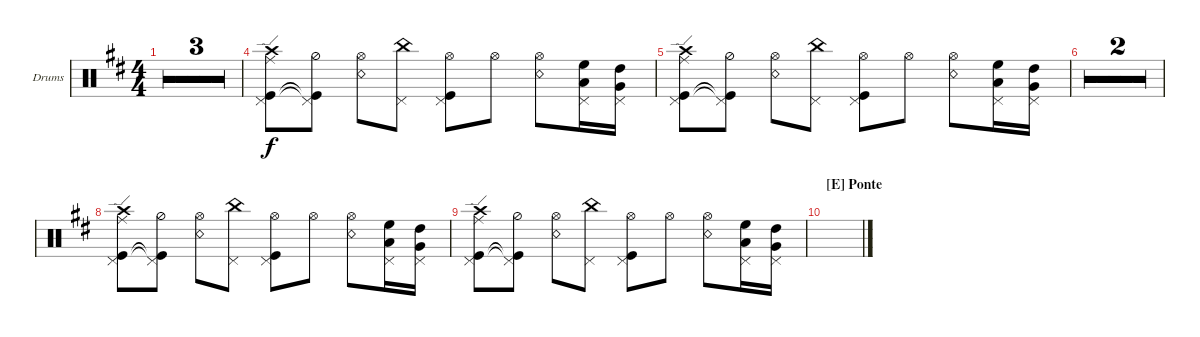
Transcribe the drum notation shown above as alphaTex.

\defaultSystemsLayout 4
\bracketExtendMode groupsimilarinstruments
\firstSystemTrackNameOrientation horizontal
\otherSystemsTrackNameOrientation horizontal
\track ("Drum-hall" "Drums") {multiBarRest instrument percussion}
\staff {score}
\articulation defaults
\ts (4 4)
\tempo 72
\clef neutral
\ks d
|
|
|
("Kick (hit)" "Pedal Hi-Hat (hit)" "Crash high (hit)" "Ride (edge)").8 ("Kick (hit)"{t} "Pedal Hi-Hat (hit)"{t} "Hi-Hat (half)").8 ("Snare (rim shot)" "Hi-Hat (open)").8 ("Pedal Hi-Hat (hit)" "China (hit)").8 ("Kick (hit)" "Pedal Hi-Hat (hit)" "Hi-Hat (open)").8 "Hi-Hat (open)".8 ("Snare (rim shot)" "Hi-Hat (open)").8 ("High Floor Tom (hit)" "Low Tom (hit)" "Pedal Hi-Hat (hit)").16 ("High Tom (hit)" "Very Low Tom (hit)" "Pedal Hi-Hat (hit)").16 |
("Kick (hit)" "Pedal Hi-Hat (hit)" "Crash high (hit)" "Ride (edge)").8 ("Kick (hit)"{t} "Pedal Hi-Hat (hit)"{t} "Hi-Hat (half)").8 ("Snare (rim shot)" "Hi-Hat (open)").8 ("Pedal Hi-Hat (hit)" "China (hit)").8 ("Kick (hit)" "Pedal Hi-Hat (hit)" "Hi-Hat (open)").8 "Hi-Hat (open)".8 ("Snare (rim shot)" "Hi-Hat (open)").8 ("High Floor Tom (hit)" "Low Tom (hit)" "Pedal Hi-Hat (hit)").16 ("High Tom (hit)" "Very Low Tom (hit)" "Pedal Hi-Hat (hit)").16 |
|
|
("Kick (hit)" "Pedal Hi-Hat (hit)" "Crash high (hit)" "Ride (edge)").8 ("Kick (hit)"{t} "Pedal Hi-Hat (hit)"{t} "Hi-Hat (half)").8 ("Snare (rim shot)" "Hi-Hat (open)").8 ("Pedal Hi-Hat (hit)" "China (hit)").8 ("Kick (hit)" "Pedal Hi-Hat (hit)" "Hi-Hat (open)").8 "Hi-Hat (open)".8 ("Snare (rim shot)" "Hi-Hat (open)").8 ("High Floor Tom (hit)" "Low Tom (hit)" "Pedal Hi-Hat (hit)").16 ("High Tom (hit)" "Very Low Tom (hit)" "Pedal Hi-Hat (hit)").16 |
("Kick (hit)" "Pedal Hi-Hat (hit)" "Crash high (hit)" "Ride (edge)").8 ("Kick (hit)"{t} "Pedal Hi-Hat (hit)"{t} "Hi-Hat (half)").8 ("Snare (rim shot)" "Hi-Hat (open)").8 ("Pedal Hi-Hat (hit)" "China (hit)").8 ("Kick (hit)" "Pedal Hi-Hat (hit)" "Hi-Hat (open)").8 "Hi-Hat (open)".8 ("Snare (rim shot)" "Hi-Hat (open)").8 ("High Floor Tom (hit)" "Low Tom (hit)" "Pedal Hi-Hat (hit)").16 ("High Tom (hit)" "Very Low Tom (hit)" "Pedal Hi-Hat (hit)").16 |
\section ("E" "Ponte")
